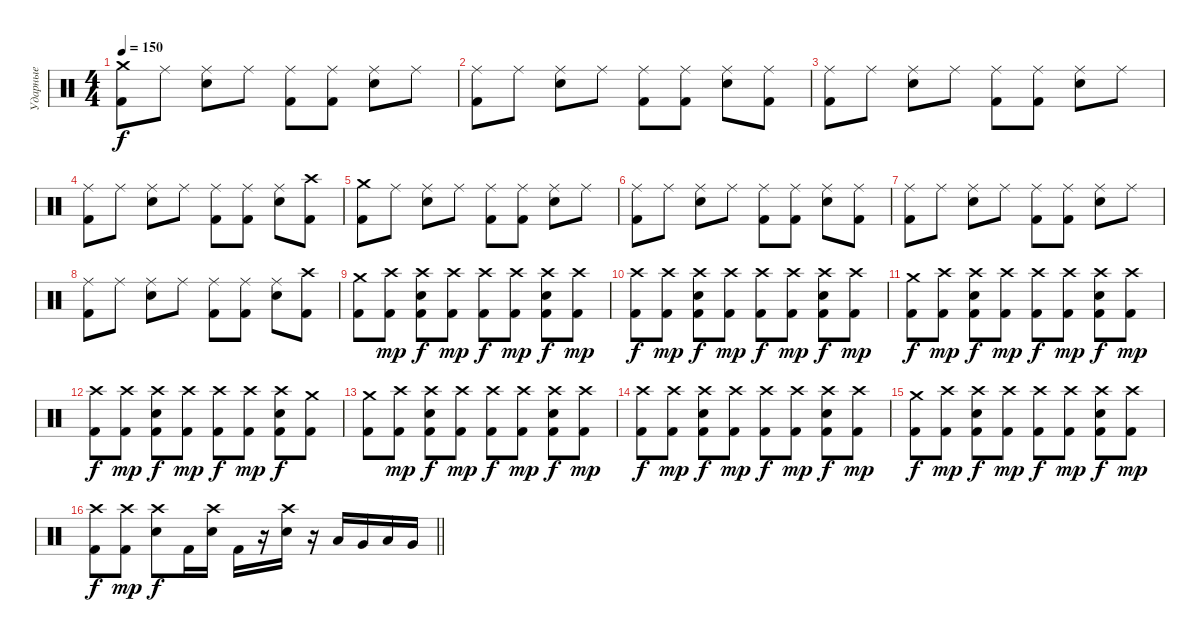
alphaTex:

\track ("Ударные" "Ударные") {instrument percussion}
\staff {score}
\articulation defaults
\ts (4 4)
\tempo 150
\clef neutral
\ks c
("Crash medium (hit)" "Kick (hit) 2").8{dy f} "Ride (middle)".8 ("Ride (middle)" "Electric Snare (hit)").8 "Ride (middle)".8 ("Ride (middle)" "Kick (hit) 2").8 ("Ride (middle)" "Kick (hit) 2").8 ("Ride (middle)" "Electric Snare (hit)").8 "Ride (middle)".8 |
("Ride (middle)" "Kick (hit) 2").8 "Ride (middle)".8 ("Ride (middle)" "Electric Snare (hit)").8 "Ride (middle)".8 ("Ride (middle)" "Kick (hit) 2").8 ("Ride (middle)" "Kick (hit) 2").8 ("Ride (middle)" "Electric Snare (hit)").8 ("Ride (middle)" "Kick (hit) 2").8 |
("Ride (middle)" "Kick (hit) 2").8 "Ride (middle)".8 ("Ride (middle)" "Electric Snare (hit)").8 "Ride (middle)".8 ("Ride (middle)" "Kick (hit) 2").8 ("Ride (middle)" "Kick (hit) 2").8 ("Ride (middle)" "Electric Snare (hit)").8 "Ride (middle)".8 |
("Ride (middle)" "Kick (hit) 2").8 "Ride (middle)".8 ("Ride (middle)" "Electric Snare (hit)").8 "Ride (middle)".8 ("Ride (middle)" "Kick (hit) 2").8 ("Ride (middle)" "Kick (hit) 2").8 ("Ride (middle)" "Electric Snare (hit)").8 ("Crash high (hit)" "Kick (hit) 2").8 |
("Crash medium (hit)" "Kick (hit) 2").8 "Ride (middle)".8 ("Ride (middle)" "Electric Snare (hit)").8 "Ride (middle)".8 ("Ride (middle)" "Kick (hit) 2").8 ("Ride (middle)" "Kick (hit) 2").8 ("Ride (middle)" "Electric Snare (hit)").8 "Ride (middle)".8 |
("Ride (middle)" "Kick (hit) 2").8 "Ride (middle)".8 ("Ride (middle)" "Electric Snare (hit)").8 "Ride (middle)".8 ("Ride (middle)" "Kick (hit) 2").8 ("Ride (middle)" "Kick (hit) 2").8 ("Ride (middle)" "Electric Snare (hit)").8 ("Ride (middle)" "Kick (hit) 2").8 |
("Ride (middle)" "Kick (hit) 2").8 "Ride (middle)".8 ("Ride (middle)" "Electric Snare (hit)").8 "Ride (middle)".8 ("Ride (middle)" "Kick (hit) 2").8 ("Ride (middle)" "Kick (hit) 2").8 ("Ride (middle)" "Electric Snare (hit)").8 "Ride (middle)".8 |
("Ride (middle)" "Kick (hit) 2").8 "Ride (middle)".8 ("Ride (middle)" "Electric Snare (hit)").8 "Ride (middle)".8 ("Ride (middle)" "Kick (hit) 2").8 ("Ride (middle)" "Kick (hit) 2").8 ("Ride (middle)" "Electric Snare (hit)").8 ("Crash high (hit)" "Kick (hit) 2").8 |
("Crash medium (hit)" "Kick (hit) 2").8 ("Crash high (hit)" "Kick (hit) 2").8{dy mp} ("Crash high (hit)" "Electric Snare (hit)" "Kick (hit) 2").8{dy f} ("Crash high (hit)" "Kick (hit) 2").8{dy mp} ("Crash high (hit)" "Kick (hit) 2").8{dy f} ("Crash high (hit)" "Kick (hit) 2").8{dy mp} ("Crash high (hit)" "Electric Snare (hit)" "Kick (hit) 2").8{dy f} ("Crash high (hit)" "Kick (hit) 2").8{dy mp} |
("Crash high (hit)" "Kick (hit) 2").8{dy f} ("Crash high (hit)" "Kick (hit) 2").8{dy mp} ("Crash high (hit)" "Electric Snare (hit)" "Kick (hit) 2").8{dy f} ("Crash high (hit)" "Kick (hit) 2").8{dy mp} ("Crash high (hit)" "Kick (hit) 2").8{dy f} ("Crash high (hit)" "Kick (hit) 2").8{dy mp} ("Crash high (hit)" "Electric Snare (hit)" "Kick (hit) 2").8{dy f} ("Crash high (hit)" "Kick (hit) 2").8{dy mp} |
("Crash medium (hit)" "Kick (hit) 2").8{dy f} ("Crash high (hit)" "Kick (hit) 2").8{dy mp} ("Crash high (hit)" "Electric Snare (hit)" "Kick (hit) 2").8{dy f} ("Crash high (hit)" "Kick (hit) 2").8{dy mp} ("Crash high (hit)" "Kick (hit) 2").8{dy f} ("Crash high (hit)" "Kick (hit) 2").8{dy mp} ("Crash high (hit)" "Electric Snare (hit)" "Kick (hit) 2").8{dy f} ("Crash high (hit)" "Kick (hit) 2").8{dy mp} |
("Crash high (hit)" "Kick (hit) 2").8{dy f} ("Crash high (hit)" "Kick (hit) 2").8{dy mp} ("Crash high (hit)" "Electric Snare (hit)" "Kick (hit) 2").8{dy f} ("Crash high (hit)" "Kick (hit) 2").8{dy mp} ("Crash high (hit)" "Kick (hit) 2").8{dy f} ("Crash high (hit)" "Kick (hit) 2").8{dy mp} ("Crash high (hit)" "Electric Snare (hit)" "Kick (hit) 2").8{dy f} ("Crash medium (hit)" "Kick (hit) 2").8 |
("Crash medium (hit)" "Kick (hit) 2").8 ("Crash high (hit)" "Kick (hit) 2").8{dy mp} ("Crash high (hit)" "Electric Snare (hit)" "Kick (hit) 2").8{dy f} ("Crash high (hit)" "Kick (hit) 2").8{dy mp} ("Crash high (hit)" "Kick (hit) 2").8{dy f} ("Crash high (hit)" "Kick (hit) 2").8{dy mp} ("Crash high (hit)" "Electric Snare (hit)" "Kick (hit) 2").8{dy f} ("Crash high (hit)" "Kick (hit) 2").8{dy mp} |
("Crash high (hit)" "Kick (hit) 2").8{dy f} ("Crash high (hit)" "Kick (hit) 2").8{dy mp} ("Crash high (hit)" "Electric Snare (hit)" "Kick (hit) 2").8{dy f} ("Crash high (hit)" "Kick (hit) 2").8{dy mp} ("Crash high (hit)" "Kick (hit) 2").8{dy f} ("Crash high (hit)" "Kick (hit) 2").8{dy mp} ("Crash high (hit)" "Electric Snare (hit)" "Kick (hit) 2").8{dy f} ("Crash high (hit)" "Kick (hit) 2").8{dy mp} |
("Crash medium (hit)" "Kick (hit) 2").8{dy f} ("Crash high (hit)" "Kick (hit) 2").8{dy mp} ("Crash high (hit)" "Electric Snare (hit)" "Kick (hit) 2").8{dy f} ("Crash high (hit)" "Kick (hit) 2").8{dy mp} ("Crash high (hit)" "Kick (hit) 2").8{dy f} ("Crash high (hit)" "Kick (hit) 2").8{dy mp} ("Crash high (hit)" "Electric Snare (hit)" "Kick (hit) 2").8{dy f} ("Crash high (hit)" "Kick (hit) 2").8{dy mp} |
\barLineRight lightlight
("Crash high (hit)" "Kick (hit) 2").8{dy f} ("Crash high (hit)" "Kick (hit) 2").8{dy mp} ("Crash high (hit)" "Electric Snare (hit)").8{dy f} "Kick (hit) 2".16 ("Crash high (hit)" "Electric Snare (hit)").16 "Kick (hit) 2".16 r.16 ("Crash high (hit)" "Electric Snare (hit)").16 r.16 "Low Floor Tom (hit)".16 "Very Low Tom (hit)".16 "Low Floor Tom (hit)".16 "Very Low Tom (hit)".16
